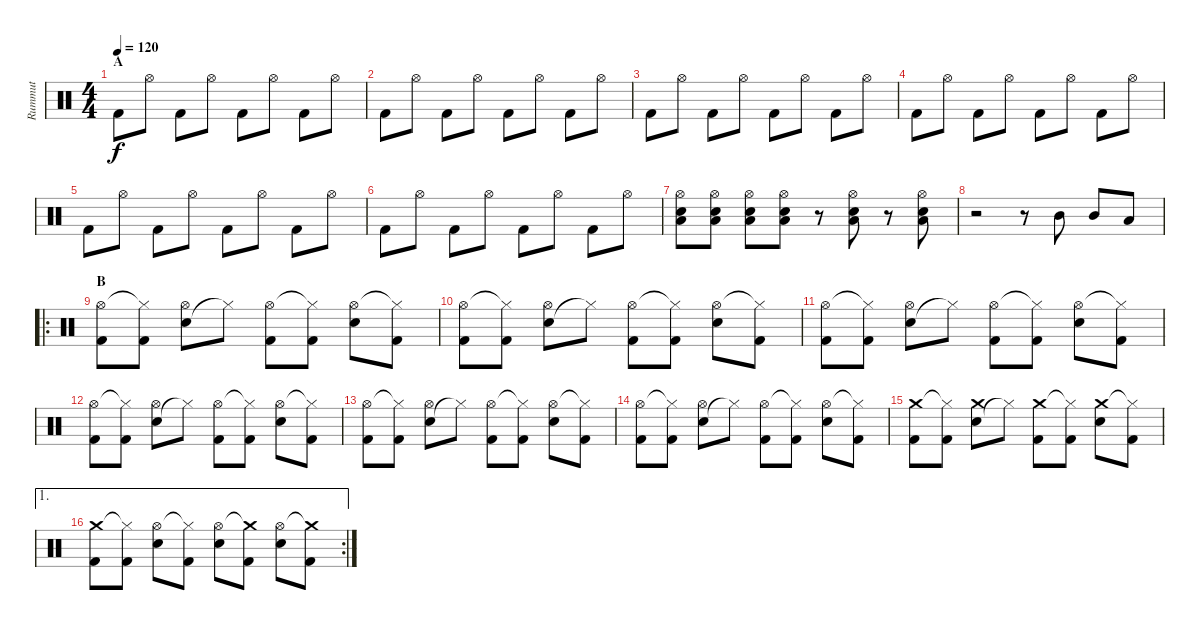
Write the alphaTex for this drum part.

\track ("Rummut" "Rummut") {instrument percussion}
\staff {score}
\articulation defaults
\ts (4 4)
\section ("" "A")
\tempo 120
\clef neutral
\ks c "Kick (hit) 2".8{dy f} "Hi-Hat (open)".8 "Kick (hit) 2".8 "Hi-Hat (open)".8 "Kick (hit) 2".8 "Hi-Hat (open)".8 "Kick (hit) 2".8 "Hi-Hat (open)".8
|
"Kick (hit) 2".8 "Hi-Hat (open)".8 "Kick (hit) 2".8 "Hi-Hat (open)".8 "Kick (hit) 2".8 "Hi-Hat (open)".8 "Kick (hit) 2".8 "Hi-Hat (open)".8 |
"Kick (hit) 2".8 "Hi-Hat (open)".8 "Kick (hit) 2".8 "Hi-Hat (open)".8 "Kick (hit) 2".8 "Hi-Hat (open)".8 "Kick (hit) 2".8 "Hi-Hat (open)".8 |
"Kick (hit) 2".8 "Hi-Hat (open)".8 "Kick (hit) 2".8 "Hi-Hat (open)".8 "Kick (hit) 2".8 "Hi-Hat (open)".8 "Kick (hit) 2".8 "Hi-Hat (open)".8 |
"Kick (hit) 2".8 "Hi-Hat (open)".8 "Kick (hit) 2".8 "Hi-Hat (open)".8 "Kick (hit) 2".8 "Hi-Hat (open)".8 "Kick (hit) 2".8 "Hi-Hat (open)".8 |
"Kick (hit) 2".8 "Hi-Hat (open)".8 "Kick (hit) 2".8 "Hi-Hat (open)".8 "Kick (hit) 2".8 "Hi-Hat (open)".8 "Kick (hit) 2".8 "Hi-Hat (open)".8 |
("Low Tom (hit)" "Electric Snare (hit)" "Hi-Hat (open)").8 ("Low Tom (hit)" "Electric Snare (hit)" "Hi-Hat (open)").8 ("Low Tom (hit)" "Electric Snare (hit)" "Hi-Hat (open)").8 ("Low Tom (hit)" "Electric Snare (hit)" "Hi-Hat (open)").8 r.8 ("Low Tom (hit)" "Electric Snare (hit)" "Hi-Hat (open)").8 r.8 ("Low Tom (hit)" "Electric Snare (hit)" "Hi-Hat (open)").8 |
r.2 r.8 "Mid Tom (hit)".8 "Mid Tom (hit)".8 "Low Tom (hit)".8 |
\ro
\section ("" "B")
("Kick (hit) 2" "Hi-Hat (open)").8 ("Kick (hit) 2" "Hi-Hat (closed)"{t}).8 ("Electric Snare (hit)" "Hi-Hat (open)").8 "Hi-Hat (closed)"{t}.8 ("Kick (hit) 2" "Hi-Hat (open)").8 ("Kick (hit) 2" "Hi-Hat (closed)"{t}).8 ("Electric Snare (hit)" "Hi-Hat (open)").8 ("Kick (hit) 2" "Hi-Hat (closed)"{t}).8 |
("Kick (hit) 2" "Hi-Hat (open)").8 ("Kick (hit) 2" "Hi-Hat (closed)"{t}).8 ("Electric Snare (hit)" "Hi-Hat (open)").8 "Hi-Hat (closed)"{t}.8 ("Kick (hit) 2" "Hi-Hat (open)").8 ("Kick (hit) 2" "Hi-Hat (closed)"{t}).8 ("Electric Snare (hit)" "Hi-Hat (open)").8 ("Kick (hit) 2" "Hi-Hat (closed)"{t}).8 |
("Kick (hit) 2" "Hi-Hat (open)").8 ("Kick (hit) 2" "Hi-Hat (closed)"{t}).8 ("Electric Snare (hit)" "Hi-Hat (open)").8 "Hi-Hat (closed)"{t}.8 ("Kick (hit) 2" "Hi-Hat (open)").8 ("Kick (hit) 2" "Hi-Hat (closed)"{t}).8 ("Electric Snare (hit)" "Hi-Hat (open)").8 ("Kick (hit) 2" "Hi-Hat (closed)"{t}).8 |
("Kick (hit) 2" "Hi-Hat (open)").8 ("Kick (hit) 2" "Hi-Hat (closed)"{t}).8 ("Electric Snare (hit)" "Hi-Hat (open)").8 "Hi-Hat (closed)"{t}.8 ("Kick (hit) 2" "Hi-Hat (open)").8 ("Kick (hit) 2" "Hi-Hat (closed)"{t}).8 ("Electric Snare (hit)" "Hi-Hat (open)").8 ("Kick (hit) 2" "Hi-Hat (closed)"{t}).8 |
("Kick (hit) 2" "Hi-Hat (open)").8 ("Kick (hit) 2" "Hi-Hat (closed)"{t}).8 ("Electric Snare (hit)" "Hi-Hat (open)").8 "Hi-Hat (closed)"{t}.8 ("Kick (hit) 2" "Hi-Hat (open)").8 ("Kick (hit) 2" "Hi-Hat (closed)"{t}).8 ("Electric Snare (hit)" "Hi-Hat (open)").8 ("Kick (hit) 2" "Hi-Hat (closed)"{t}).8 |
("Kick (hit) 2" "Hi-Hat (open)").8 ("Kick (hit) 2" "Hi-Hat (closed)"{t}).8 ("Electric Snare (hit)" "Hi-Hat (open)").8 "Hi-Hat (closed)"{t}.8 ("Kick (hit) 2" "Hi-Hat (open)").8 ("Kick (hit) 2" "Hi-Hat (closed)"{t}).8 ("Electric Snare (hit)" "Hi-Hat (open)").8 ("Kick (hit) 2" "Hi-Hat (closed)"{t}).8 |
("Kick (hit) 2" "Crash medium (hit)").8 ("Kick (hit) 2" "Hi-Hat (closed)"{t}).8 ("Electric Snare (hit)" "Crash medium (hit)").8 "Hi-Hat (closed)"{t}.8 ("Kick (hit) 2" "Crash medium (hit)").8 ("Kick (hit) 2" "Hi-Hat (closed)"{t}).8 ("Electric Snare (hit)" "Crash medium (hit)").8 ("Kick (hit) 2" "Hi-Hat (closed)"{t}).8 |
\ae 1
\rc 2
("Kick (hit) 2" "Crash medium (hit)").8 ("Kick (hit) 2" "Hi-Hat (closed)"{t}).8 ("Electric Snare (hit)" "Hi-Hat (open)").8 ("Kick (hit) 2" "Hi-Hat (closed)"{t}).8 ("Electric Snare (hit)" "Hi-Hat (open)").8 ("Kick (hit) 2" "Crash medium (hit)"{t}).8 ("Electric Snare (hit)" "Hi-Hat (open)").8 ("Kick (hit) 2" "Crash medium (hit)"{t}).8
